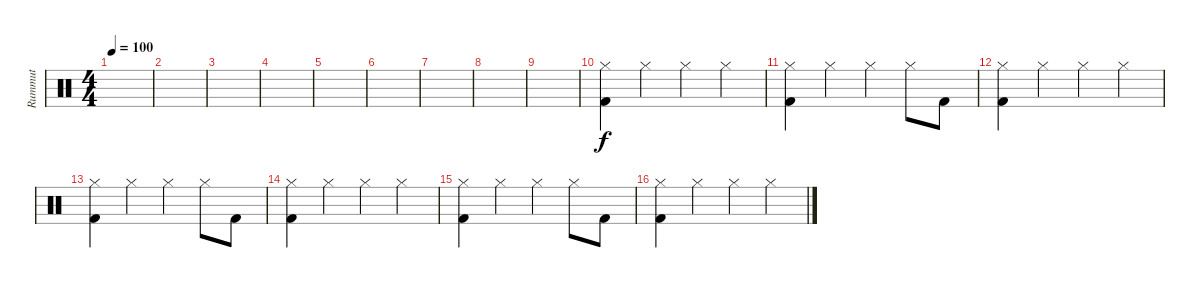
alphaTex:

\track ("Rummut" "Rummut") {instrument percussion}
\staff {score}
\articulation defaults
\ts (4 4)
\tempo 100
\clef neutral
\ks c
|
|
|
|
|
|
|
|
|
("Hi-Hat (closed)" "Kick (hit) 2").4 "Hi-Hat (closed)".4 "Hi-Hat (closed)".4 "Hi-Hat (closed)".4 |
("Hi-Hat (closed)" "Kick (hit) 2").4 "Hi-Hat (closed)".4 "Hi-Hat (closed)".4 "Hi-Hat (closed)".8 "Kick (hit) 2".8 |
("Hi-Hat (closed)" "Kick (hit) 2").4 "Hi-Hat (closed)".4 "Hi-Hat (closed)".4 "Hi-Hat (closed)".4 |
("Hi-Hat (closed)" "Kick (hit) 2").4 "Hi-Hat (closed)".4 "Hi-Hat (closed)".4 "Hi-Hat (closed)".8 "Kick (hit) 2".8 |
("Hi-Hat (closed)" "Kick (hit) 2").4 "Hi-Hat (closed)".4 "Hi-Hat (closed)".4 "Hi-Hat (closed)".4 |
("Hi-Hat (closed)" "Kick (hit) 2").4 "Hi-Hat (closed)".4 "Hi-Hat (closed)".4 "Hi-Hat (closed)".8 "Kick (hit) 2".8 |
("Hi-Hat (closed)" "Kick (hit) 2").4 "Hi-Hat (closed)".4 "Hi-Hat (closed)".4 "Hi-Hat (closed)".4
